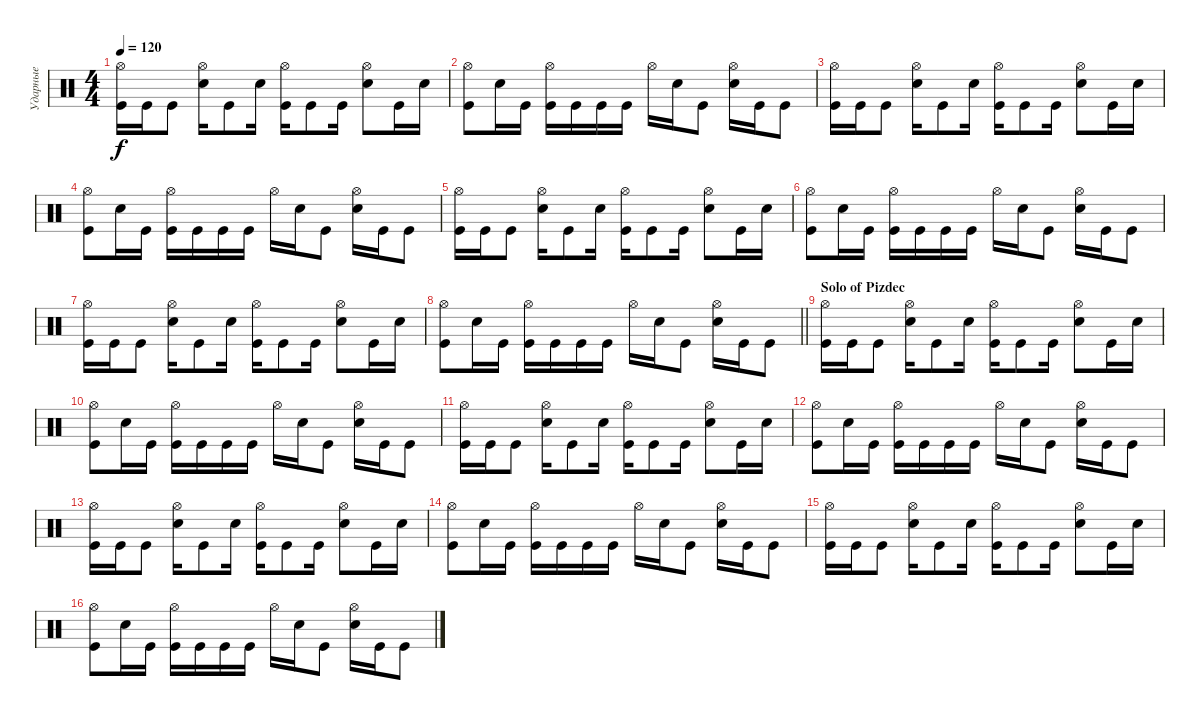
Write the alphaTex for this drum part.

\track ("Ударные" "Ударные") {instrument percussion}
\staff {score}
\articulation defaults
\ts (4 4)
\tempo 120
\clef neutral
\ks c
("Hi-Hat (open)" "Kick (hit)").16{dy f} "Kick (hit)".16 "Kick (hit)".8 ("Hi-Hat (open)" "Electric Snare (hit)").16 "Kick (hit)".8 "Electric Snare (hit)".16 ("Hi-Hat (open)" "Kick (hit)").16 "Kick (hit)".8 "Kick (hit)".16 ("Hi-Hat (open)" "Electric Snare (hit)").8 "Kick (hit)".16 "Electric Snare (hit)".16 |
("Hi-Hat (open)" "Kick (hit)").8 "Electric Snare (hit)".16 "Kick (hit)".16 ("Hi-Hat (open)" "Kick (hit)").16 "Kick (hit)".16 "Kick (hit)".16 "Kick (hit)".16 "Hi-Hat (open)".16 "Electric Snare (hit)".16 "Kick (hit)".8 ("Hi-Hat (open)" "Electric Snare (hit)").16 "Kick (hit)".16 "Kick (hit)".8 |
("Hi-Hat (open)" "Kick (hit)").16 "Kick (hit)".16 "Kick (hit)".8 ("Hi-Hat (open)" "Electric Snare (hit)").16 "Kick (hit)".8 "Electric Snare (hit)".16 ("Hi-Hat (open)" "Kick (hit)").16 "Kick (hit)".8 "Kick (hit)".16 ("Hi-Hat (open)" "Electric Snare (hit)").8 "Kick (hit)".16 "Electric Snare (hit)".16 |
("Hi-Hat (open)" "Kick (hit)").8 "Electric Snare (hit)".16 "Kick (hit)".16 ("Hi-Hat (open)" "Kick (hit)").16 "Kick (hit)".16 "Kick (hit)".16 "Kick (hit)".16 "Hi-Hat (open)".16 "Electric Snare (hit)".16 "Kick (hit)".8 ("Hi-Hat (open)" "Electric Snare (hit)").16 "Kick (hit)".16 "Kick (hit)".8 |
("Hi-Hat (open)" "Kick (hit)").16 "Kick (hit)".16 "Kick (hit)".8 ("Hi-Hat (open)" "Electric Snare (hit)").16 "Kick (hit)".8 "Electric Snare (hit)".16 ("Hi-Hat (open)" "Kick (hit)").16 "Kick (hit)".8 "Kick (hit)".16 ("Hi-Hat (open)" "Electric Snare (hit)").8 "Kick (hit)".16 "Electric Snare (hit)".16 |
("Hi-Hat (open)" "Kick (hit)").8 "Electric Snare (hit)".16 "Kick (hit)".16 ("Hi-Hat (open)" "Kick (hit)").16 "Kick (hit)".16 "Kick (hit)".16 "Kick (hit)".16 "Hi-Hat (open)".16 "Electric Snare (hit)".16 "Kick (hit)".8 ("Hi-Hat (open)" "Electric Snare (hit)").16 "Kick (hit)".16 "Kick (hit)".8 |
("Hi-Hat (open)" "Kick (hit)").16 "Kick (hit)".16 "Kick (hit)".8 ("Hi-Hat (open)" "Electric Snare (hit)").16 "Kick (hit)".8 "Electric Snare (hit)".16 ("Hi-Hat (open)" "Kick (hit)").16 "Kick (hit)".8 "Kick (hit)".16 ("Hi-Hat (open)" "Electric Snare (hit)").8 "Kick (hit)".16 "Electric Snare (hit)".16 |
\barLineRight lightlight
("Hi-Hat (open)" "Kick (hit)").8 "Electric Snare (hit)".16 "Kick (hit)".16 ("Hi-Hat (open)" "Kick (hit)").16 "Kick (hit)".16 "Kick (hit)".16 "Kick (hit)".16 "Hi-Hat (open)".16 "Electric Snare (hit)".16 "Kick (hit)".8 ("Hi-Hat (open)" "Electric Snare (hit)").16 "Kick (hit)".16 "Kick (hit)".8 |
\section ("" "Solo of Pizdec")
("Hi-Hat (open)" "Kick (hit)").16 "Kick (hit)".16 "Kick (hit)".8 ("Hi-Hat (open)" "Electric Snare (hit)").16 "Kick (hit)".8 "Electric Snare (hit)".16 ("Hi-Hat (open)" "Kick (hit)").16 "Kick (hit)".8 "Kick (hit)".16 ("Hi-Hat (open)" "Electric Snare (hit)").8 "Kick (hit)".16 "Electric Snare (hit)".16 |
("Hi-Hat (open)" "Kick (hit)").8 "Electric Snare (hit)".16 "Kick (hit)".16 ("Hi-Hat (open)" "Kick (hit)").16 "Kick (hit)".16 "Kick (hit)".16 "Kick (hit)".16 "Hi-Hat (open)".16 "Electric Snare (hit)".16 "Kick (hit)".8 ("Hi-Hat (open)" "Electric Snare (hit)").16 "Kick (hit)".16 "Kick (hit)".8 |
("Hi-Hat (open)" "Kick (hit)").16 "Kick (hit)".16 "Kick (hit)".8 ("Hi-Hat (open)" "Electric Snare (hit)").16 "Kick (hit)".8 "Electric Snare (hit)".16 ("Hi-Hat (open)" "Kick (hit)").16 "Kick (hit)".8 "Kick (hit)".16 ("Hi-Hat (open)" "Electric Snare (hit)").8 "Kick (hit)".16 "Electric Snare (hit)".16 |
("Hi-Hat (open)" "Kick (hit)").8 "Electric Snare (hit)".16 "Kick (hit)".16 ("Hi-Hat (open)" "Kick (hit)").16 "Kick (hit)".16 "Kick (hit)".16 "Kick (hit)".16 "Hi-Hat (open)".16 "Electric Snare (hit)".16 "Kick (hit)".8 ("Hi-Hat (open)" "Electric Snare (hit)").16 "Kick (hit)".16 "Kick (hit)".8 |
("Hi-Hat (open)" "Kick (hit)").16 "Kick (hit)".16 "Kick (hit)".8 ("Hi-Hat (open)" "Electric Snare (hit)").16 "Kick (hit)".8 "Electric Snare (hit)".16 ("Hi-Hat (open)" "Kick (hit)").16 "Kick (hit)".8 "Kick (hit)".16 ("Hi-Hat (open)" "Electric Snare (hit)").8 "Kick (hit)".16 "Electric Snare (hit)".16 |
("Hi-Hat (open)" "Kick (hit)").8 "Electric Snare (hit)".16 "Kick (hit)".16 ("Hi-Hat (open)" "Kick (hit)").16 "Kick (hit)".16 "Kick (hit)".16 "Kick (hit)".16 "Hi-Hat (open)".16 "Electric Snare (hit)".16 "Kick (hit)".8 ("Hi-Hat (open)" "Electric Snare (hit)").16 "Kick (hit)".16 "Kick (hit)".8 |
("Hi-Hat (open)" "Kick (hit)").16 "Kick (hit)".16 "Kick (hit)".8 ("Hi-Hat (open)" "Electric Snare (hit)").16 "Kick (hit)".8 "Electric Snare (hit)".16 ("Hi-Hat (open)" "Kick (hit)").16 "Kick (hit)".8 "Kick (hit)".16 ("Hi-Hat (open)" "Electric Snare (hit)").8 "Kick (hit)".16 "Electric Snare (hit)".16 |
("Hi-Hat (open)" "Kick (hit)").8 "Electric Snare (hit)".16 "Kick (hit)".16 ("Hi-Hat (open)" "Kick (hit)").16 "Kick (hit)".16 "Kick (hit)".16 "Kick (hit)".16 "Hi-Hat (open)".16 "Electric Snare (hit)".16 "Kick (hit)".8 ("Hi-Hat (open)" "Electric Snare (hit)").16 "Kick (hit)".16 "Kick (hit)".8
